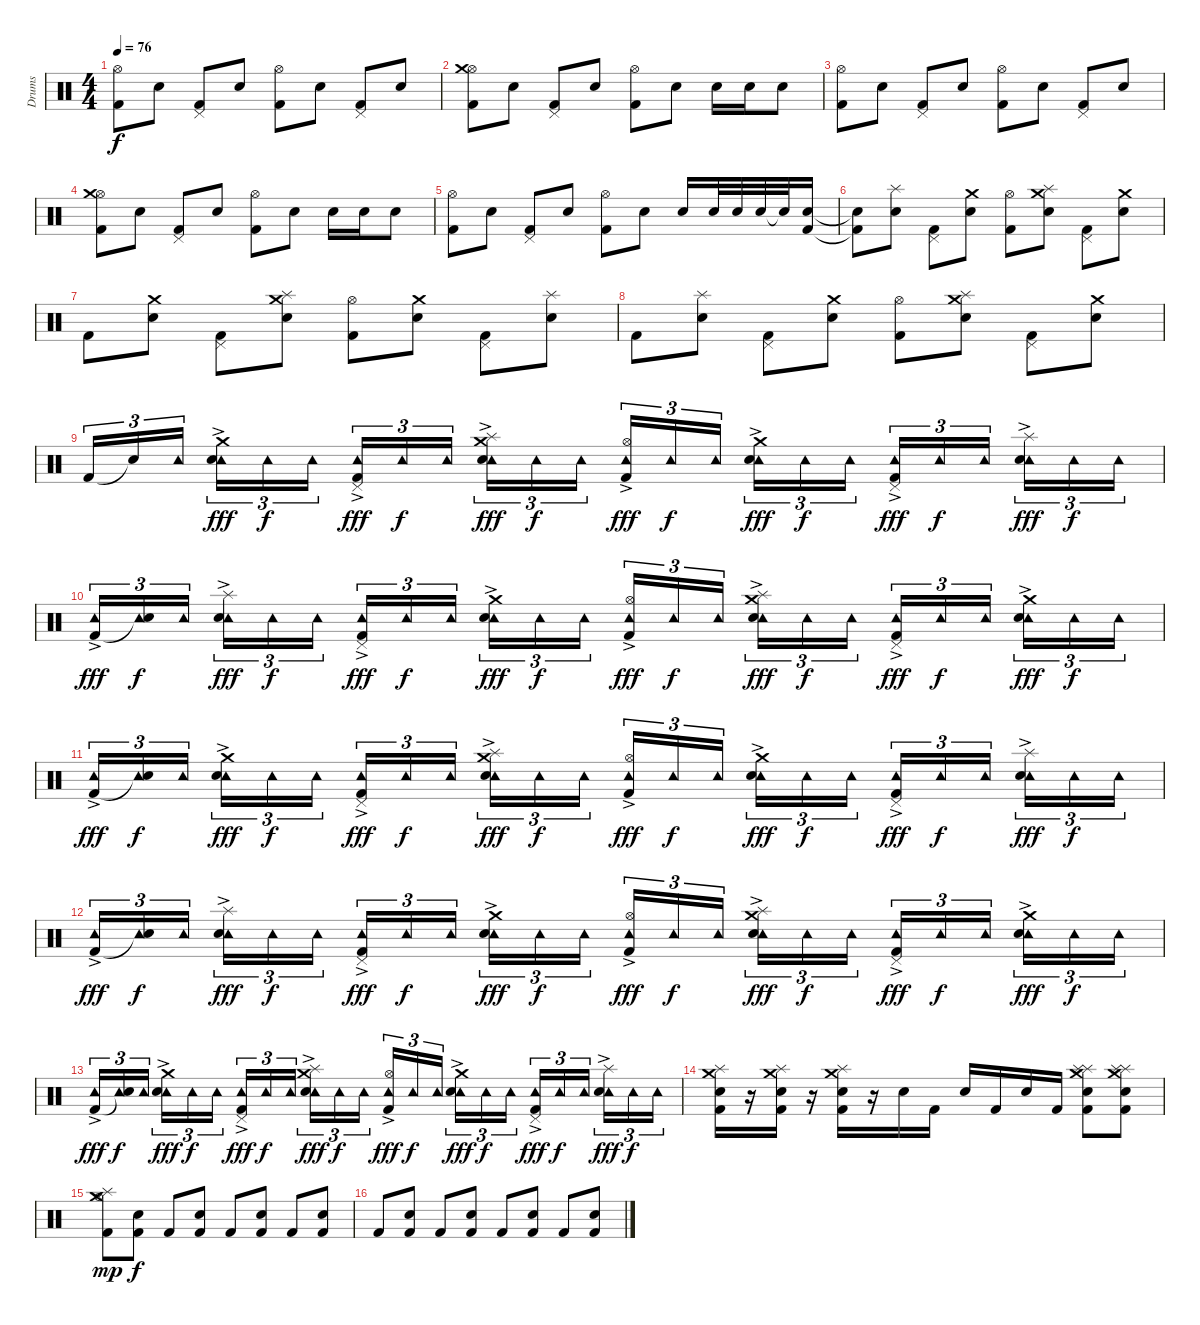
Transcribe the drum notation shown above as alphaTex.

\track ("Drums" "Drums") {instrument percussion}
\staff {score}
\articulation defaults
\ts (4 4)
\tempo 76
\clef neutral
\ks c
("Kick (hit) 2" "Hi-Hat (open)").8{dy f} "Snare (hit) 2".8 ("Kick (hit) 2" "Pedal Hi-Hat (hit)").8 "Snare (hit) 2".8 ("Kick (hit) 2" "Hi-Hat (open)").8 "Snare (hit) 2".8 ("Kick (hit) 2" "Pedal Hi-Hat (hit)").8 "Snare (hit) 2".8 |
("Kick (hit) 2" "Hi-Hat (open)" "Crash medium (hit)").8 "Snare (hit) 2".8 ("Kick (hit) 2" "Pedal Hi-Hat (hit)").8 "Snare (hit) 2".8 ("Kick (hit) 2" "Hi-Hat (open)").8 "Snare (hit) 2".8 "Snare (hit) 2".16 "Snare (hit) 2".16 "Snare (hit) 2".8 |
("Kick (hit) 2" "Hi-Hat (open)").8 "Snare (hit) 2".8 ("Kick (hit) 2" "Pedal Hi-Hat (hit)").8 "Snare (hit) 2".8 ("Kick (hit) 2" "Hi-Hat (open)").8 "Snare (hit) 2".8 ("Kick (hit) 2" "Pedal Hi-Hat (hit)").8 "Snare (hit) 2".8 |
("Kick (hit) 2" "Hi-Hat (open)" "Crash medium (hit)").8 "Snare (hit) 2".8 ("Kick (hit) 2" "Pedal Hi-Hat (hit)").8 "Snare (hit) 2".8 ("Kick (hit) 2" "Hi-Hat (open)").8 "Snare (hit) 2".8 "Snare (hit) 2".16 "Snare (hit) 2".16 "Snare (hit) 2".8 |
("Kick (hit) 2" "Hi-Hat (open)").8 "Snare (hit) 2".8 ("Kick (hit) 2" "Pedal Hi-Hat (hit)").8 "Snare (hit) 2".8 ("Kick (hit) 2" "Hi-Hat (open)").8 "Snare (hit) 2".8 "Snare (hit) 2".16 "Snare (hit) 2".32 "Snare (hit) 2".32 "Snare (hit) 2".32 "Snare (hit)"{t}.32 ("Kick (hit) 2" "Snare (hit) 2").16 |
("Kick (hit) 2"{t} "Snare (hit)"{t}).8 ("Snare (hit) 2" "Splash (hit)").8 ("Kick (hit) 2" "Pedal Hi-Hat (hit)").8 ("Snare (hit) 2" "Crash medium (hit)").8 ("Kick (hit) 2" "Hi-Hat (open)").8 ("Snare (hit) 2" "Crash medium (hit)" "Splash (hit)").8 ("Kick (hit) 2" "Pedal Hi-Hat (hit)").8 ("Snare (hit) 2" "Crash medium (hit)").8 |
"Kick (hit) 2".8 ("Snare (hit) 2" "Crash medium (hit)").8 ("Kick (hit) 2" "Pedal Hi-Hat (hit)").8 ("Snare (hit) 2" "Splash (hit)" "Crash medium (hit)").8 ("Kick (hit) 2" "Hi-Hat (open)").8 ("Snare (hit) 2" "Crash medium (hit)").8 ("Kick (hit) 2" "Pedal Hi-Hat (hit)").8 ("Snare (hit) 2" "Splash (hit)").8 |
"Kick (hit) 2".8 ("Snare (hit) 2" "Splash (hit)").8 ("Kick (hit) 2" "Pedal Hi-Hat (hit)").8 ("Snare (hit) 2" "Crash medium (hit)").8 ("Kick (hit) 2" "Hi-Hat (open)").8 ("Snare (hit) 2" "Crash medium (hit)" "Splash (hit)").8 ("Kick (hit) 2" "Pedal Hi-Hat (hit)").8 ("Snare (hit) 2" "Crash medium (hit)").8 |
"Kick (hit) 2".16{tu (3 2)} "Snare (hit)"{t}.16{tu (3 2)} "Tambourine (hit)".16{tu (3 2)} ("Tambourine (hit)"{ac} "Snare (hit) 2" "Crash medium (hit)").16{tu (3 2) dy fff} "Tambourine (hit)".16{tu (3 2) dy f} "Tambourine (hit)".16{tu (3 2)} ("Tambourine (hit)"{ac} "Kick (hit) 2" "Pedal Hi-Hat (hit)").16{tu (3 2) dy fff} "Tambourine (hit)".16{tu (3 2) dy f} "Tambourine (hit)".16{tu (3 2)} ("Tambourine (hit)"{ac} "Snare (hit) 2" "Splash (hit)" "Crash medium (hit)").16{tu (3 2) dy fff} "Tambourine (hit)".16{tu (3 2) dy f} "Tambourine (hit)".16{tu (3 2)} ("Tambourine (hit)"{ac} "Kick (hit) 2" "Hi-Hat (open)").16{tu (3 2) dy fff} "Tambourine (hit)".16{tu (3 2) dy f} "Tambourine (hit)".16{tu (3 2)} ("Tambourine (hit)"{ac} "Snare (hit) 2" "Crash medium (hit)").16{tu (3 2) dy fff} "Tambourine (hit)".16{tu (3 2) dy f} "Tambourine (hit)".16{tu (3 2)} ("Tambourine (hit)"{ac} "Kick (hit) 2" "Pedal Hi-Hat (hit)").16{tu (3 2) dy fff} "Tambourine (hit)".16{tu (3 2) dy f} "Tambourine (hit)".16{tu (3 2)} ("Tambourine (hit)"{ac} "Snare (hit) 2" "Splash (hit)").16{tu (3 2) dy fff} "Tambourine (hit)".16{tu (3 2) dy f} "Tambourine (hit)".16{tu (3 2)} |
("Tambourine (hit)"{ac} "Kick (hit) 2").16{tu (3 2) dy fff} ("Tambourine (hit)" "Snare (hit)"{t}).16{tu (3 2) dy f} "Tambourine (hit)".16{tu (3 2)} ("Tambourine (hit)"{ac} "Snare (hit) 2" "Splash (hit)").16{tu (3 2) dy fff} "Tambourine (hit)".16{tu (3 2) dy f} "Tambourine (hit)".16{tu (3 2)} ("Tambourine (hit)"{ac} "Kick (hit) 2" "Pedal Hi-Hat (hit)").16{tu (3 2) dy fff} "Tambourine (hit)".16{tu (3 2) dy f} "Tambourine (hit)".16{tu (3 2)} ("Tambourine (hit)"{ac} "Snare (hit) 2" "Crash medium (hit)").16{tu (3 2) dy fff} "Tambourine (hit)".16{tu (3 2) dy f} "Tambourine (hit)".16{tu (3 2)} ("Tambourine (hit)"{ac} "Kick (hit) 2" "Hi-Hat (open)").16{tu (3 2) dy fff} "Tambourine (hit)".16{tu (3 2) dy f} "Tambourine (hit)".16{tu (3 2)} ("Tambourine (hit)"{ac} "Snare (hit) 2" "Crash medium (hit)" "Splash (hit)").16{tu (3 2) dy fff} "Tambourine (hit)".16{tu (3 2) dy f} "Tambourine (hit)".16{tu (3 2)} ("Tambourine (hit)"{ac} "Kick (hit) 2" "Pedal Hi-Hat (hit)").16{tu (3 2) dy fff} "Tambourine (hit)".16{tu (3 2) dy f} "Tambourine (hit)".16{tu (3 2)} ("Tambourine (hit)"{ac} "Snare (hit) 2" "Crash medium (hit)").16{tu (3 2) dy fff} "Tambourine (hit)".16{tu (3 2) dy f} "Tambourine (hit)".16{tu (3 2)} |
("Tambourine (hit)"{ac} "Kick (hit) 2").16{tu (3 2) dy fff} ("Tambourine (hit)" "Snare (hit)"{t}).16{tu (3 2) dy f} "Tambourine (hit)".16{tu (3 2)} ("Tambourine (hit)"{ac} "Snare (hit) 2" "Crash medium (hit)").16{tu (3 2) dy fff} "Tambourine (hit)".16{tu (3 2) dy f} "Tambourine (hit)".16{tu (3 2)} ("Tambourine (hit)"{ac} "Kick (hit) 2" "Pedal Hi-Hat (hit)").16{tu (3 2) dy fff} "Tambourine (hit)".16{tu (3 2) dy f} "Tambourine (hit)".16{tu (3 2)} ("Tambourine (hit)"{ac} "Snare (hit) 2" "Splash (hit)" "Crash medium (hit)").16{tu (3 2) dy fff} "Tambourine (hit)".16{tu (3 2) dy f} "Tambourine (hit)".16{tu (3 2)} ("Tambourine (hit)"{ac} "Kick (hit) 2" "Hi-Hat (open)").16{tu (3 2) dy fff} "Tambourine (hit)".16{tu (3 2) dy f} "Tambourine (hit)".16{tu (3 2)} ("Tambourine (hit)"{ac} "Snare (hit) 2" "Crash medium (hit)").16{tu (3 2) dy fff} "Tambourine (hit)".16{tu (3 2) dy f} "Tambourine (hit)".16{tu (3 2)} ("Tambourine (hit)"{ac} "Kick (hit) 2" "Pedal Hi-Hat (hit)").16{tu (3 2) dy fff} "Tambourine (hit)".16{tu (3 2) dy f} "Tambourine (hit)".16{tu (3 2)} ("Tambourine (hit)"{ac} "Snare (hit) 2" "Splash (hit)").16{tu (3 2) dy fff} "Tambourine (hit)".16{tu (3 2) dy f} "Tambourine (hit)".16{tu (3 2)} |
("Tambourine (hit)"{ac} "Kick (hit) 2").16{tu (3 2) dy fff} ("Tambourine (hit)" "Snare (hit)"{t}).16{tu (3 2) dy f} "Tambourine (hit)".16{tu (3 2)} ("Tambourine (hit)"{ac} "Snare (hit) 2" "Splash (hit)").16{tu (3 2) dy fff} "Tambourine (hit)".16{tu (3 2) dy f} "Tambourine (hit)".16{tu (3 2)} ("Tambourine (hit)"{ac} "Kick (hit) 2" "Pedal Hi-Hat (hit)").16{tu (3 2) dy fff} "Tambourine (hit)".16{tu (3 2) dy f} "Tambourine (hit)".16{tu (3 2)} ("Tambourine (hit)"{ac} "Snare (hit) 2" "Crash medium (hit)").16{tu (3 2) dy fff} "Tambourine (hit)".16{tu (3 2) dy f} "Tambourine (hit)".16{tu (3 2)} ("Tambourine (hit)"{ac} "Kick (hit) 2" "Hi-Hat (open)").16{tu (3 2) dy fff} "Tambourine (hit)".16{tu (3 2) dy f} "Tambourine (hit)".16{tu (3 2)} ("Tambourine (hit)"{ac} "Snare (hit) 2" "Crash medium (hit)" "Splash (hit)").16{tu (3 2) dy fff} "Tambourine (hit)".16{tu (3 2) dy f} "Tambourine (hit)".16{tu (3 2)} ("Tambourine (hit)"{ac} "Kick (hit) 2" "Pedal Hi-Hat (hit)").16{tu (3 2) dy fff} "Tambourine (hit)".16{tu (3 2) dy f} "Tambourine (hit)".16{tu (3 2)} ("Tambourine (hit)"{ac} "Snare (hit) 2" "Crash medium (hit)").16{tu (3 2) dy fff} "Tambourine (hit)".16{tu (3 2) dy f} "Tambourine (hit)".16{tu (3 2)} |
("Tambourine (hit)"{ac} "Kick (hit) 2").16{tu (3 2) dy fff} ("Tambourine (hit)" "Snare (hit)"{t}).16{tu (3 2) dy f} "Tambourine (hit)".16{tu (3 2)} ("Tambourine (hit)"{ac} "Snare (hit) 2" "Crash medium (hit)").16{tu (3 2) dy fff} "Tambourine (hit)".16{tu (3 2) dy f} "Tambourine (hit)".16{tu (3 2)} ("Tambourine (hit)"{ac} "Kick (hit) 2" "Pedal Hi-Hat (hit)").16{tu (3 2) dy fff} "Tambourine (hit)".16{tu (3 2) dy f} "Tambourine (hit)".16{tu (3 2)} ("Tambourine (hit)"{ac} "Snare (hit) 2" "Splash (hit)" "Crash medium (hit)").16{tu (3 2) dy fff} "Tambourine (hit)".16{tu (3 2) dy f} "Tambourine (hit)".16{tu (3 2)} ("Tambourine (hit)"{ac} "Kick (hit) 2" "Hi-Hat (open)").16{tu (3 2) dy fff} "Tambourine (hit)".16{tu (3 2) dy f} "Tambourine (hit)".16{tu (3 2)} ("Tambourine (hit)"{ac} "Snare (hit) 2" "Crash medium (hit)").16{tu (3 2) dy fff} "Tambourine (hit)".16{tu (3 2) dy f} "Tambourine (hit)".16{tu (3 2)} ("Tambourine (hit)"{ac} "Kick (hit) 2" "Pedal Hi-Hat (hit)").16{tu (3 2) dy fff} "Tambourine (hit)".16{tu (3 2) dy f} "Tambourine (hit)".16{tu (3 2)} ("Tambourine (hit)"{ac} "Snare (hit) 2" "Splash (hit)").16{tu (3 2) dy fff} "Tambourine (hit)".16{tu (3 2) dy f} "Tambourine (hit)".16{tu (3 2)} |
("Snare (hit) 2" "Splash (hit)" "Crash medium (hit)" "Kick (hit) 2").16 r.16 ("Snare (hit) 2" "Splash (hit)" "Crash medium (hit)" "Kick (hit) 2").16 r.16 ("Snare (hit) 2" "Splash (hit)" "Crash medium (hit)" "Kick (hit) 2").16 r.16 "Snare (hit) 2".16{volume 14} "Kick (hit) 2".16 "Snare (hit) 2".16 "Kick (hit) 2".16 "Snare (hit) 2".16 "Kick (hit) 2".16 ("Kick (hit) 2" "Snare (hit) 2" "Splash (hit)" "Splash (hit)" "Crash medium (hit)").8 ("Kick (hit) 2" "Snare (hit) 2" "Splash (hit)" "Splash (hit)" "Crash medium (hit)").8 |
("Kick (hit) 2" "Splash (hit)" "Crash medium (hit)" "Hi-Hat (open)").8{dy mp} ("Kick (hit) 2" "Snare (hit) 2").8{dy f} "Kick (hit) 2".8 ("Kick (hit) 2" "Snare (hit) 2").8 "Kick (hit) 2".8 ("Kick (hit) 2" "Snare (hit) 2").8 "Kick (hit) 2".8 ("Kick (hit) 2" "Snare (hit) 2").8 |
"Kick (hit) 2".8 ("Kick (hit) 2" "Snare (hit) 2").8 "Kick (hit) 2".8 ("Kick (hit) 2" "Snare (hit) 2").8 "Kick (hit) 2".8 ("Kick (hit) 2" "Snare (hit) 2").8 "Kick (hit) 2".8 ("Kick (hit) 2" "Snare (hit) 2").8
